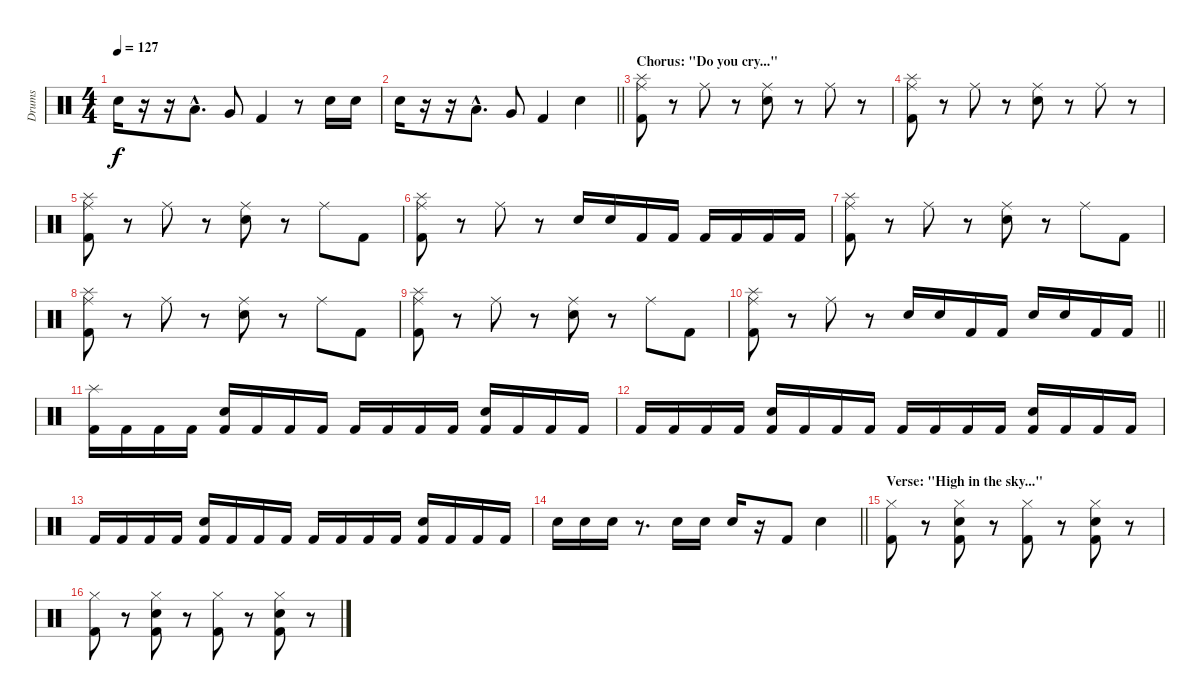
\track ("Drums" "Drums") {instrument percussion}
\staff {score}
\articulation defaults
\ts (4 4)
\tempo 127
\clef neutral
\ks c "Electric Snare (hit)".16{dy f}
r.16 r.16 "Low Tom (hit)"{hac}.8{d} "Very Low Tom (hit)".8 "Kick (hit) 2".4 r.8 "Electric Snare (hit)".16 "Electric Snare (hit)".16 |
\barLineRight lightlight "Electric Snare (hit)".16
r.16 r.16 "Low Tom (hit)"{hac}.8{d} "Very Low Tom (hit)".8 "Kick (hit) 2".4 "Electric Snare (hit)".4 |
\section ("" "Chorus: \"Do you cry...\"")
("Ride (middle)" "Kick (hit) 2" "Splash (hit)").8 r.8 "Ride (middle)".8 r.8 ("Ride (middle)" "Electric Snare (hit)").8 r.8 "Ride (middle)".8 r.8 |
("Ride (middle)" "Kick (hit) 2" "Splash (hit)").8 r.8 "Ride (middle)".8 r.8 ("Ride (middle)" "Electric Snare (hit)").8 r.8 "Ride (middle)".8 r.8 |
("Ride (middle)" "Kick (hit) 2" "Splash (hit)").8 r.8 "Ride (middle)".8 r.8 ("Ride (middle)" "Electric Snare (hit)").8 r.8 "Ride (middle)".8 "Kick (hit) 2".8 |
("Ride (middle)" "Kick (hit) 2" "Splash (hit)").8 r.8 "Ride (middle)".8 r.8 "Electric Snare (hit)".16 "Electric Snare (hit)".16 "Kick (hit) 2".16 "Kick (hit) 2".16 "Kick (hit) 2".16 "Kick (hit) 2".16 "Kick (hit) 2".16 "Kick (hit) 2".16 |
("Ride (middle)" "Kick (hit) 2" "Splash (hit)").8 r.8 "Ride (middle)".8 r.8 ("Ride (middle)" "Electric Snare (hit)").8 r.8 "Ride (middle)".8 "Kick (hit) 2".8 |
("Ride (middle)" "Kick (hit) 2" "Splash (hit)").8 r.8 "Ride (middle)".8 r.8 ("Ride (middle)" "Electric Snare (hit)").8 r.8 "Ride (middle)".8 "Kick (hit) 2".8 |
("Ride (middle)" "Kick (hit) 2" "Splash (hit)").8 r.8 "Ride (middle)".8 r.8 ("Ride (middle)" "Electric Snare (hit)").8 r.8 "Ride (middle)".8 "Kick (hit) 2".8 |
\barLineRight lightlight
("Ride (middle)" "Kick (hit) 2" "Splash (hit)").8 r.8 "Ride (middle)".8 r.8 "Electric Snare (hit)".16 "Electric Snare (hit)".16 "Kick (hit) 2".16 "Kick (hit) 2".16 "Electric Snare (hit)".16 "Electric Snare (hit)".16 "Kick (hit) 2".16 "Kick (hit) 2".16 |
\section ("" "")
("Kick (hit) 2" "Splash (hit)").16 "Kick (hit) 2".16 "Kick (hit) 2".16 "Kick (hit) 2".16 ("Kick (hit) 2" "Electric Snare (hit)").16 "Kick (hit) 2".16 "Kick (hit) 2".16 "Kick (hit) 2".16 "Kick (hit) 2".16 "Kick (hit) 2".16 "Kick (hit) 2".16 "Kick (hit) 2".16 ("Kick (hit) 2" "Electric Snare (hit)").16 "Kick (hit) 2".16 "Kick (hit) 2".16 "Kick (hit) 2".16 |
"Kick (hit) 2".16 "Kick (hit) 2".16 "Kick (hit) 2".16 "Kick (hit) 2".16 ("Kick (hit) 2" "Electric Snare (hit)").16 "Kick (hit) 2".16 "Kick (hit) 2".16 "Kick (hit) 2".16 "Kick (hit) 2".16 "Kick (hit) 2".16 "Kick (hit) 2".16 "Kick (hit) 2".16 ("Kick (hit) 2" "Electric Snare (hit)").16 "Kick (hit) 2".16 "Kick (hit) 2".16 "Kick (hit) 2".16 |
"Kick (hit) 2".16 "Kick (hit) 2".16 "Kick (hit) 2".16 "Kick (hit) 2".16 ("Kick (hit) 2" "Electric Snare (hit)").16 "Kick (hit) 2".16 "Kick (hit) 2".16 "Kick (hit) 2".16 "Kick (hit) 2".16 "Kick (hit) 2".16 "Kick (hit) 2".16 "Kick (hit) 2".16 ("Kick (hit) 2" "Electric Snare (hit)").16 "Kick (hit) 2".16 "Kick (hit) 2".16 "Kick (hit) 2".16 |
\barLineRight lightlight "Electric Snare (hit)".16 "Electric Snare (hit)".16 "Electric Snare (hit)".16
r.8{d} "Electric Snare (hit)".16 "Electric Snare (hit)".16 "Electric Snare (hit)".16 r.16 "Kick (hit) 2".8 "Electric Snare (hit)".4 |
\section ("" "Verse: \"High in the sky...\"")
("Kick (hit) 2" "Hi-Hat (closed)").8 r.8 ("Kick (hit) 2" "Electric Snare (hit)" "Hi-Hat (closed)").8 r.8 ("Kick (hit) 2" "Hi-Hat (closed)").8 r.8 ("Kick (hit) 2" "Electric Snare (hit)" "Hi-Hat (closed)").8 r.8 |
("Kick (hit) 2" "Hi-Hat (closed)").8 r.8 ("Kick (hit) 2" "Electric Snare (hit)" "Hi-Hat (closed)").8 r.8 ("Kick (hit) 2" "Hi-Hat (closed)").8 r.8 ("Kick (hit) 2" "Electric Snare (hit)" "Hi-Hat (closed)").8 r.8
